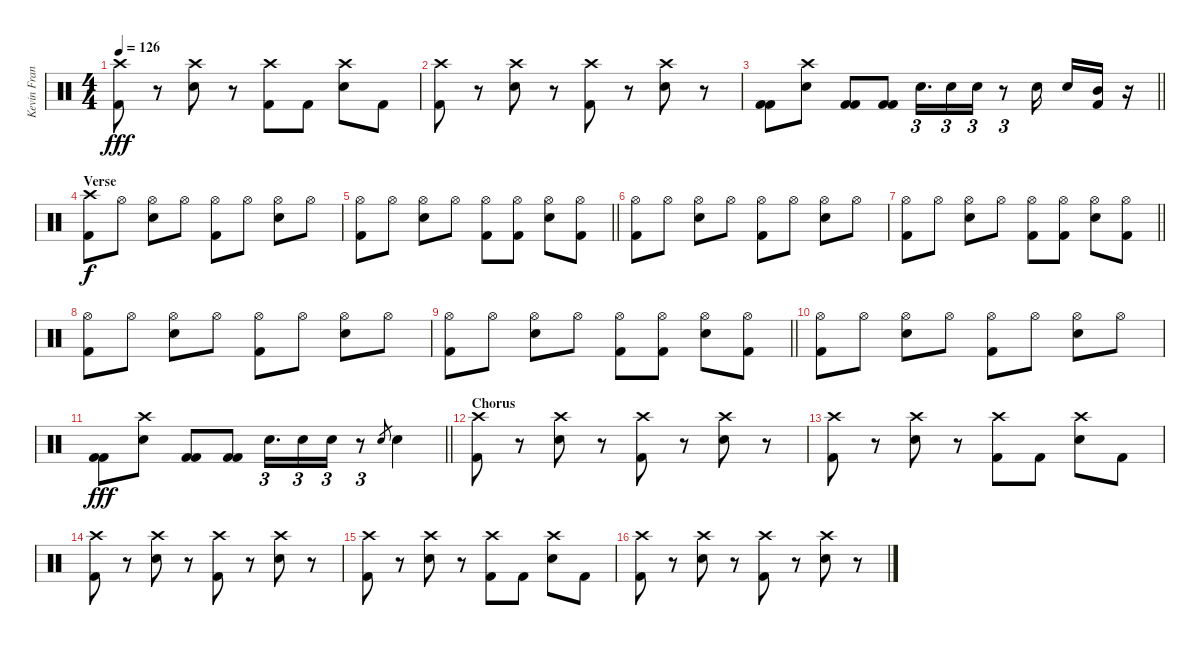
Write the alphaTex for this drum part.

\track ("Kevin Frank" "Kevin Fran") {instrument percussion}
\staff
\articulation defaults
\ts (4 4)
\tempo 126
\clef neutral
\ks c
("Crash high (hit)" "Kick (hit) 2").8{dy fff} r.8 ("Crash high (hit)" "Snare (hit) 2").8 r.8 ("Crash high (hit)" "Kick (hit) 2").8 "Kick (hit) 2".8 ("Crash high (hit)" "Snare (hit) 2").8 "Kick (hit) 2".8 |
("Crash high (hit)" "Kick (hit) 2").8 r.8 ("Crash high (hit)" "Snare (hit) 2").8 r.8 ("Crash high (hit)" "Kick (hit) 2").8 r.8 ("Crash high (hit)" "Snare (hit) 2").8 r.8 |
\barLineRight lightlight
("Kick (hit) 2" "Kick (hit) 2").8 ("Crash high (hit)" "Snare (hit) 2").8 ("Kick (hit) 2" "Kick (hit) 2").8 ("Kick (hit) 2" "Kick (hit) 2").8 "Snare (hit) 2".16{d tu (3 2)} "Snare (hit) 2".16{tu (3 2)} "Snare (hit) 2".16{tu (3 2)} r.8{tu (3 2)} "Snare (hit) 2".16 "Snare (hit) 2".16 ("Mid Tom (hit)" "Kick (hit) 2").16 r.16 |
\section ("" "Verse")
("Crash high (hit)" "Kick (hit) 2").8{dy f} "Hi-Hat (open)".8 ("Hi-Hat (open)" "Snare (hit) 2").8 "Hi-Hat (open)".8 ("Hi-Hat (open)" "Kick (hit) 2").8 "Hi-Hat (open)".8 ("Hi-Hat (open)" "Snare (hit) 2").8 "Hi-Hat (open)".8 |
\barLineRight lightlight
("Hi-Hat (open)" "Kick (hit) 2").8 "Hi-Hat (open)".8 ("Hi-Hat (open)" "Snare (hit) 2").8 "Hi-Hat (open)".8 ("Hi-Hat (open)" "Kick (hit) 2").8 ("Hi-Hat (open)" "Kick (hit) 2").8 ("Hi-Hat (open)" "Snare (hit) 2").8 ("Hi-Hat (open)" "Kick (hit) 2").8 |
("Hi-Hat (open)" "Kick (hit) 2").8 "Hi-Hat (open)".8 ("Hi-Hat (open)" "Snare (hit) 2").8 "Hi-Hat (open)".8 ("Hi-Hat (open)" "Kick (hit) 2").8 "Hi-Hat (open)".8 ("Hi-Hat (open)" "Snare (hit) 2").8 "Hi-Hat (open)".8 |
\barLineRight lightlight
("Hi-Hat (open)" "Kick (hit) 2").8 "Hi-Hat (open)".8 ("Hi-Hat (open)" "Snare (hit) 2").8 "Hi-Hat (open)".8 ("Hi-Hat (open)" "Kick (hit) 2").8 ("Hi-Hat (open)" "Kick (hit) 2").8 ("Hi-Hat (open)" "Snare (hit) 2").8 ("Hi-Hat (open)" "Kick (hit) 2").8 |
("Hi-Hat (open)" "Kick (hit) 2").8 "Hi-Hat (open)".8 ("Hi-Hat (open)" "Snare (hit) 2").8 "Hi-Hat (open)".8 ("Hi-Hat (open)" "Kick (hit) 2").8 "Hi-Hat (open)".8 ("Hi-Hat (open)" "Snare (hit) 2").8 "Hi-Hat (open)".8 |
\barLineRight lightlight
("Hi-Hat (open)" "Kick (hit) 2").8 "Hi-Hat (open)".8 ("Hi-Hat (open)" "Snare (hit) 2").8 "Hi-Hat (open)".8 ("Hi-Hat (open)" "Kick (hit) 2").8 ("Hi-Hat (open)" "Kick (hit) 2").8 ("Hi-Hat (open)" "Snare (hit) 2").8 ("Hi-Hat (open)" "Kick (hit) 2").8 |
("Hi-Hat (open)" "Kick (hit) 2").8 "Hi-Hat (open)".8 ("Hi-Hat (open)" "Snare (hit) 2").8 "Hi-Hat (open)".8 ("Hi-Hat (open)" "Kick (hit) 2").8 "Hi-Hat (open)".8 ("Hi-Hat (open)" "Snare (hit) 2").8 "Hi-Hat (open)".8 |
\barLineRight lightlight
("Kick (hit) 2" "Kick (hit) 2").8{dy fff} ("Crash high (hit)" "Snare (hit) 2").8 ("Kick (hit) 2" "Kick (hit) 2").8 ("Kick (hit) 2" "Kick (hit) 2").8 "Snare (hit) 2".16{d tu (3 2)} "Snare (hit) 2".16{tu (3 2)} "Snare (hit) 2".16{tu (3 2)} r.8{tu (3 2)} "Snare (hit) 2".8{gr} "Snare (hit) 2".4 |
\section ("" "Chorus")
("Crash high (hit)" "Kick (hit) 2").8 r.8 ("Crash high (hit)" "Snare (hit) 2").8 r.8 ("Crash high (hit)" "Kick (hit) 2").8 r.8 ("Crash high (hit)" "Snare (hit) 2").8 r.8 |
("Crash high (hit)" "Kick (hit) 2").8 r.8 ("Crash high (hit)" "Snare (hit) 2").8 r.8 ("Crash high (hit)" "Kick (hit) 2").8 "Kick (hit) 2".8 ("Crash high (hit)" "Snare (hit) 2").8 "Kick (hit) 2".8 |
("Crash high (hit)" "Kick (hit) 2").8 r.8 ("Crash high (hit)" "Snare (hit) 2").8 r.8 ("Crash high (hit)" "Kick (hit) 2").8 r.8 ("Crash high (hit)" "Snare (hit) 2").8 r.8 |
("Crash high (hit)" "Kick (hit) 2").8 r.8 ("Crash high (hit)" "Snare (hit) 2").8 r.8 ("Crash high (hit)" "Kick (hit) 2").8 "Kick (hit) 2".8 ("Crash high (hit)" "Snare (hit) 2").8 "Kick (hit) 2".8 |
("Crash high (hit)" "Kick (hit) 2").8 r.8 ("Crash high (hit)" "Snare (hit) 2").8 r.8 ("Crash high (hit)" "Kick (hit) 2").8 r.8 ("Crash high (hit)" "Snare (hit) 2").8 r.8
